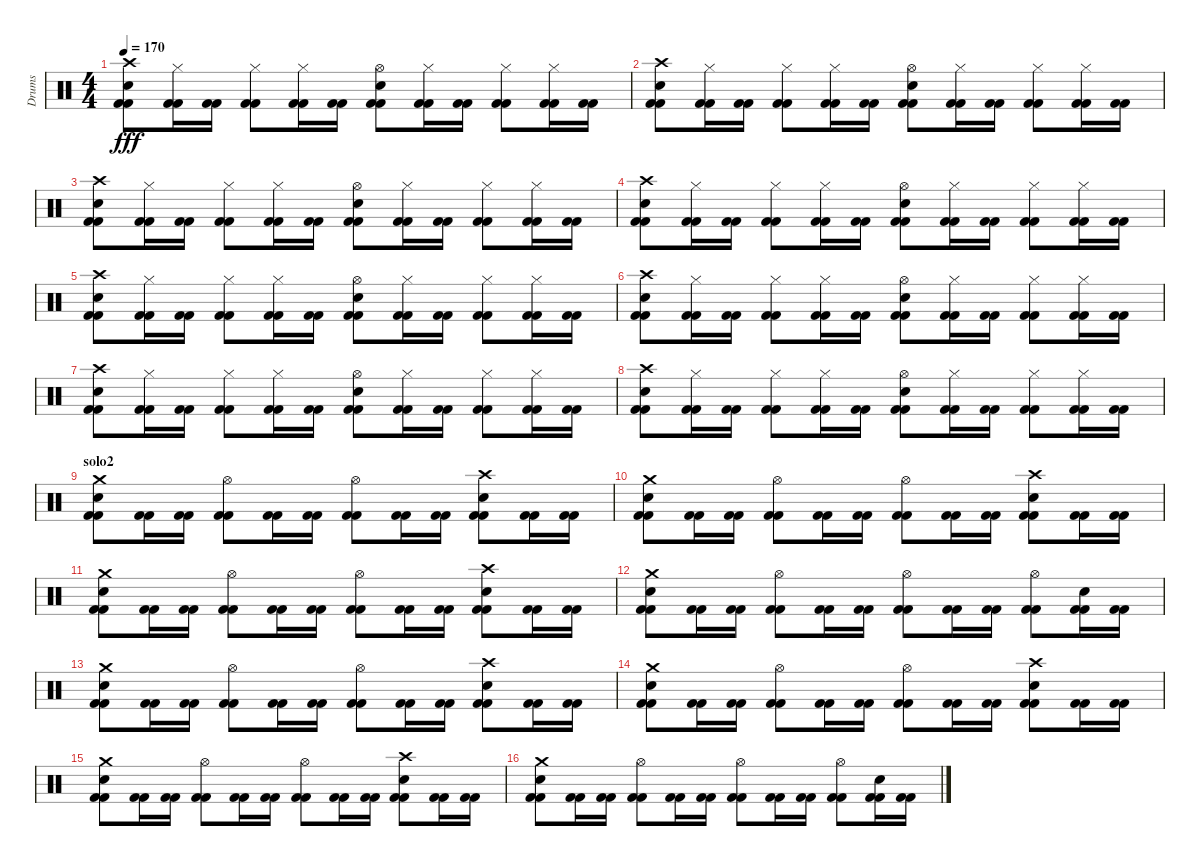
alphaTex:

\track ("Drums" "Drums") {instrument percussion}
\staff {score}
\articulation defaults
\ts (4 4)
\tempo 170
\clef neutral
\ks c
("Crash high (hit)" "Electric Snare (hit)" "Kick (hit) 2" "Kick (hit) 2").8{dy fff} ("Hi-Hat (closed)" "Kick (hit) 2" "Kick (hit) 2").16 ("Kick (hit) 2" "Kick (hit) 2").16 ("Hi-Hat (closed)" "Kick (hit) 2" "Kick (hit) 2").8 ("Hi-Hat (closed)" "Kick (hit) 2" "Kick (hit) 2").16 ("Kick (hit) 2" "Kick (hit) 2").16 ("Hi-Hat (open)" "Electric Snare (hit)" "Kick (hit) 2" "Kick (hit) 2").8 ("Hi-Hat (closed)" "Kick (hit) 2" "Kick (hit) 2").16 ("Kick (hit) 2" "Kick (hit) 2").16 ("Hi-Hat (closed)" "Kick (hit) 2" "Kick (hit) 2").8 ("Hi-Hat (closed)" "Kick (hit) 2" "Kick (hit) 2").16 ("Kick (hit) 2" "Kick (hit) 2").16 |
("Crash high (hit)" "Electric Snare (hit)" "Kick (hit) 2" "Kick (hit) 2").8 ("Hi-Hat (closed)" "Kick (hit) 2" "Kick (hit) 2").16 ("Kick (hit) 2" "Kick (hit) 2").16 ("Hi-Hat (closed)" "Kick (hit) 2" "Kick (hit) 2").8 ("Hi-Hat (closed)" "Kick (hit) 2" "Kick (hit) 2").16 ("Kick (hit) 2" "Kick (hit) 2").16 ("Hi-Hat (open)" "Electric Snare (hit)" "Kick (hit) 2" "Kick (hit) 2").8 ("Hi-Hat (closed)" "Kick (hit) 2" "Kick (hit) 2").16 ("Kick (hit) 2" "Kick (hit) 2").16 ("Hi-Hat (closed)" "Kick (hit) 2" "Kick (hit) 2").8 ("Hi-Hat (closed)" "Kick (hit) 2" "Kick (hit) 2").16 ("Kick (hit) 2" "Kick (hit) 2").16 |
("Crash high (hit)" "Electric Snare (hit)" "Kick (hit) 2" "Kick (hit) 2").8 ("Hi-Hat (closed)" "Kick (hit) 2" "Kick (hit) 2").16 ("Kick (hit) 2" "Kick (hit) 2").16 ("Hi-Hat (closed)" "Kick (hit) 2" "Kick (hit) 2").8 ("Hi-Hat (closed)" "Kick (hit) 2" "Kick (hit) 2").16 ("Kick (hit) 2" "Kick (hit) 2").16 ("Hi-Hat (open)" "Electric Snare (hit)" "Kick (hit) 2" "Kick (hit) 2").8 ("Hi-Hat (closed)" "Kick (hit) 2" "Kick (hit) 2").16 ("Kick (hit) 2" "Kick (hit) 2").16 ("Hi-Hat (closed)" "Kick (hit) 2" "Kick (hit) 2").8 ("Hi-Hat (closed)" "Kick (hit) 2" "Kick (hit) 2").16 ("Kick (hit) 2" "Kick (hit) 2").16 |
("Crash high (hit)" "Electric Snare (hit)" "Kick (hit) 2" "Kick (hit) 2").8 ("Hi-Hat (closed)" "Kick (hit) 2" "Kick (hit) 2").16 ("Kick (hit) 2" "Kick (hit) 2").16 ("Hi-Hat (closed)" "Kick (hit) 2" "Kick (hit) 2").8 ("Hi-Hat (closed)" "Kick (hit) 2" "Kick (hit) 2").16 ("Kick (hit) 2" "Kick (hit) 2").16 ("Hi-Hat (open)" "Electric Snare (hit)" "Kick (hit) 2" "Kick (hit) 2").8 ("Hi-Hat (closed)" "Kick (hit) 2" "Kick (hit) 2").16 ("Kick (hit) 2" "Kick (hit) 2").16 ("Hi-Hat (closed)" "Kick (hit) 2" "Kick (hit) 2").8 ("Hi-Hat (closed)" "Kick (hit) 2" "Kick (hit) 2").16 ("Kick (hit) 2" "Kick (hit) 2").16 |
("Crash high (hit)" "Electric Snare (hit)" "Kick (hit) 2" "Kick (hit) 2").8 ("Hi-Hat (closed)" "Kick (hit) 2" "Kick (hit) 2").16 ("Kick (hit) 2" "Kick (hit) 2").16 ("Hi-Hat (closed)" "Kick (hit) 2" "Kick (hit) 2").8 ("Hi-Hat (closed)" "Kick (hit) 2" "Kick (hit) 2").16 ("Kick (hit) 2" "Kick (hit) 2").16 ("Hi-Hat (open)" "Electric Snare (hit)" "Kick (hit) 2" "Kick (hit) 2").8 ("Hi-Hat (closed)" "Kick (hit) 2" "Kick (hit) 2").16 ("Kick (hit) 2" "Kick (hit) 2").16 ("Hi-Hat (closed)" "Kick (hit) 2" "Kick (hit) 2").8 ("Hi-Hat (closed)" "Kick (hit) 2" "Kick (hit) 2").16 ("Kick (hit) 2" "Kick (hit) 2").16 |
("Crash high (hit)" "Electric Snare (hit)" "Kick (hit) 2" "Kick (hit) 2").8 ("Hi-Hat (closed)" "Kick (hit) 2" "Kick (hit) 2").16 ("Kick (hit) 2" "Kick (hit) 2").16 ("Hi-Hat (closed)" "Kick (hit) 2" "Kick (hit) 2").8 ("Hi-Hat (closed)" "Kick (hit) 2" "Kick (hit) 2").16 ("Kick (hit) 2" "Kick (hit) 2").16 ("Hi-Hat (open)" "Electric Snare (hit)" "Kick (hit) 2" "Kick (hit) 2").8 ("Hi-Hat (closed)" "Kick (hit) 2" "Kick (hit) 2").16 ("Kick (hit) 2" "Kick (hit) 2").16 ("Hi-Hat (closed)" "Kick (hit) 2" "Kick (hit) 2").8 ("Hi-Hat (closed)" "Kick (hit) 2" "Kick (hit) 2").16 ("Kick (hit) 2" "Kick (hit) 2").16 |
("Crash high (hit)" "Electric Snare (hit)" "Kick (hit) 2" "Kick (hit) 2").8 ("Hi-Hat (closed)" "Kick (hit) 2" "Kick (hit) 2").16 ("Kick (hit) 2" "Kick (hit) 2").16 ("Hi-Hat (closed)" "Kick (hit) 2" "Kick (hit) 2").8 ("Hi-Hat (closed)" "Kick (hit) 2" "Kick (hit) 2").16 ("Kick (hit) 2" "Kick (hit) 2").16 ("Hi-Hat (open)" "Electric Snare (hit)" "Kick (hit) 2" "Kick (hit) 2").8 ("Hi-Hat (closed)" "Kick (hit) 2" "Kick (hit) 2").16 ("Kick (hit) 2" "Kick (hit) 2").16 ("Hi-Hat (closed)" "Kick (hit) 2" "Kick (hit) 2").8 ("Hi-Hat (closed)" "Kick (hit) 2" "Kick (hit) 2").16 ("Kick (hit) 2" "Kick (hit) 2").16 |
("Crash high (hit)" "Electric Snare (hit)" "Kick (hit) 2" "Kick (hit) 2").8 ("Hi-Hat (closed)" "Kick (hit) 2" "Kick (hit) 2").16 ("Kick (hit) 2" "Kick (hit) 2").16 ("Hi-Hat (closed)" "Kick (hit) 2" "Kick (hit) 2").8 ("Hi-Hat (closed)" "Kick (hit) 2" "Kick (hit) 2").16 ("Kick (hit) 2" "Kick (hit) 2").16 ("Hi-Hat (open)" "Electric Snare (hit)" "Kick (hit) 2" "Kick (hit) 2").8 ("Hi-Hat (closed)" "Kick (hit) 2" "Kick (hit) 2").16 ("Kick (hit) 2" "Kick (hit) 2").16 ("Hi-Hat (closed)" "Kick (hit) 2" "Kick (hit) 2").8 ("Hi-Hat (closed)" "Kick (hit) 2" "Kick (hit) 2").16 ("Kick (hit) 2" "Kick (hit) 2").16 |
\section ("" "solo2")
("Crash medium (hit)" "Electric Snare (hit)" "Kick (hit) 2" "Kick (hit) 2").8 ("Kick (hit) 2" "Kick (hit) 2").16 ("Kick (hit) 2" "Kick (hit) 2").16 ("Hi-Hat (open)" "Kick (hit) 2" "Kick (hit) 2").8 ("Kick (hit) 2" "Kick (hit) 2").16 ("Kick (hit) 2" "Kick (hit) 2").16 ("Hi-Hat (open)" "Kick (hit) 2" "Kick (hit) 2").8 ("Kick (hit) 2" "Kick (hit) 2").16 ("Kick (hit) 2" "Kick (hit) 2").16 ("Crash high (hit)" "Electric Snare (hit)" "Kick (hit) 2" "Kick (hit) 2").8 ("Kick (hit) 2" "Kick (hit) 2").16 ("Kick (hit) 2" "Kick (hit) 2").16 |
("Crash medium (hit)" "Electric Snare (hit)" "Kick (hit) 2" "Kick (hit) 2").8 ("Kick (hit) 2" "Kick (hit) 2").16 ("Kick (hit) 2" "Kick (hit) 2").16 ("Hi-Hat (open)" "Kick (hit) 2" "Kick (hit) 2").8 ("Kick (hit) 2" "Kick (hit) 2").16 ("Kick (hit) 2" "Kick (hit) 2").16 ("Hi-Hat (open)" "Kick (hit) 2" "Kick (hit) 2").8 ("Kick (hit) 2" "Kick (hit) 2").16 ("Kick (hit) 2" "Kick (hit) 2").16 ("Crash high (hit)" "Electric Snare (hit)" "Kick (hit) 2" "Kick (hit) 2").8 ("Kick (hit) 2" "Kick (hit) 2").16 ("Kick (hit) 2" "Kick (hit) 2").16 |
("Crash medium (hit)" "Electric Snare (hit)" "Kick (hit) 2" "Kick (hit) 2").8 ("Kick (hit) 2" "Kick (hit) 2").16 ("Kick (hit) 2" "Kick (hit) 2").16 ("Hi-Hat (open)" "Kick (hit) 2" "Kick (hit) 2").8 ("Kick (hit) 2" "Kick (hit) 2").16 ("Kick (hit) 2" "Kick (hit) 2").16 ("Hi-Hat (open)" "Kick (hit) 2" "Kick (hit) 2").8 ("Kick (hit) 2" "Kick (hit) 2").16 ("Kick (hit) 2" "Kick (hit) 2").16 ("Crash high (hit)" "Electric Snare (hit)" "Kick (hit) 2" "Kick (hit) 2").8 ("Kick (hit) 2" "Kick (hit) 2").16 ("Kick (hit) 2" "Kick (hit) 2").16 |
("Crash medium (hit)" "Electric Snare (hit)" "Kick (hit) 2" "Kick (hit) 2").8 ("Kick (hit) 2" "Kick (hit) 2").16 ("Kick (hit) 2" "Kick (hit) 2").16 ("Hi-Hat (open)" "Kick (hit) 2" "Kick (hit) 2").8 ("Kick (hit) 2" "Kick (hit) 2").16 ("Kick (hit) 2" "Kick (hit) 2").16 ("Hi-Hat (open)" "Kick (hit) 2" "Kick (hit) 2").8 ("Kick (hit) 2" "Kick (hit) 2").16 ("Kick (hit) 2" "Kick (hit) 2").16 ("Hi-Hat (open)" "Kick (hit) 2" "Kick (hit) 2").8 ("Electric Snare (hit)" "Kick (hit) 2" "Kick (hit) 2").16 ("Kick (hit) 2" "Kick (hit) 2").16 |
("Crash medium (hit)" "Electric Snare (hit)" "Kick (hit) 2" "Kick (hit) 2").8 ("Kick (hit) 2" "Kick (hit) 2").16 ("Kick (hit) 2" "Kick (hit) 2").16 ("Hi-Hat (open)" "Kick (hit) 2" "Kick (hit) 2").8 ("Kick (hit) 2" "Kick (hit) 2").16 ("Kick (hit) 2" "Kick (hit) 2").16 ("Hi-Hat (open)" "Kick (hit) 2" "Kick (hit) 2").8 ("Kick (hit) 2" "Kick (hit) 2").16 ("Kick (hit) 2" "Kick (hit) 2").16 ("Crash high (hit)" "Electric Snare (hit)" "Kick (hit) 2" "Kick (hit) 2").8 ("Kick (hit) 2" "Kick (hit) 2").16 ("Kick (hit) 2" "Kick (hit) 2").16 |
("Crash medium (hit)" "Electric Snare (hit)" "Kick (hit) 2" "Kick (hit) 2").8 ("Kick (hit) 2" "Kick (hit) 2").16 ("Kick (hit) 2" "Kick (hit) 2").16 ("Hi-Hat (open)" "Kick (hit) 2" "Kick (hit) 2").8 ("Kick (hit) 2" "Kick (hit) 2").16 ("Kick (hit) 2" "Kick (hit) 2").16 ("Hi-Hat (open)" "Kick (hit) 2" "Kick (hit) 2").8 ("Kick (hit) 2" "Kick (hit) 2").16 ("Kick (hit) 2" "Kick (hit) 2").16 ("Crash high (hit)" "Electric Snare (hit)" "Kick (hit) 2" "Kick (hit) 2").8 ("Kick (hit) 2" "Kick (hit) 2").16 ("Kick (hit) 2" "Kick (hit) 2").16 |
("Crash medium (hit)" "Electric Snare (hit)" "Kick (hit) 2" "Kick (hit) 2").8 ("Kick (hit) 2" "Kick (hit) 2").16 ("Kick (hit) 2" "Kick (hit) 2").16 ("Hi-Hat (open)" "Kick (hit) 2" "Kick (hit) 2").8 ("Kick (hit) 2" "Kick (hit) 2").16 ("Kick (hit) 2" "Kick (hit) 2").16 ("Hi-Hat (open)" "Kick (hit) 2" "Kick (hit) 2").8 ("Kick (hit) 2" "Kick (hit) 2").16 ("Kick (hit) 2" "Kick (hit) 2").16 ("Crash high (hit)" "Electric Snare (hit)" "Kick (hit) 2" "Kick (hit) 2").8 ("Kick (hit) 2" "Kick (hit) 2").16 ("Kick (hit) 2" "Kick (hit) 2").16 |
("Crash medium (hit)" "Electric Snare (hit)" "Kick (hit) 2" "Kick (hit) 2").8 ("Kick (hit) 2" "Kick (hit) 2").16 ("Kick (hit) 2" "Kick (hit) 2").16 ("Hi-Hat (open)" "Kick (hit) 2" "Kick (hit) 2").8 ("Kick (hit) 2" "Kick (hit) 2").16 ("Kick (hit) 2" "Kick (hit) 2").16 ("Hi-Hat (open)" "Kick (hit) 2" "Kick (hit) 2").8 ("Kick (hit) 2" "Kick (hit) 2").16 ("Kick (hit) 2" "Kick (hit) 2").16 ("Hi-Hat (open)" "Kick (hit) 2" "Kick (hit) 2").8 ("Electric Snare (hit)" "Kick (hit) 2" "Kick (hit) 2").16 ("Kick (hit) 2" "Kick (hit) 2").16
